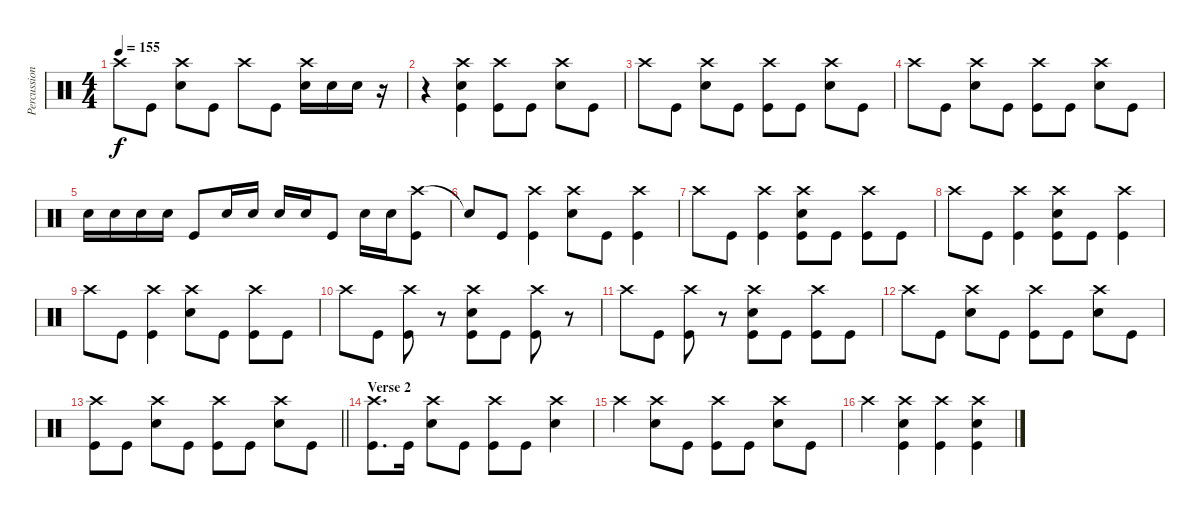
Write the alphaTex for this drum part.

\track ("Percussion" "Percussion") {instrument percussion}
\staff {score}
\articulation defaults
\ts (4 4)
\tempo 155
\clef neutral
\ks c "Crash high (hit)".8{dy f} "Kick (hit)".8
("Crash high (hit)" "Snare (hit) 2").8 "Kick (hit)".8 "Crash high (hit)".8 "Kick (hit)".8 ("Crash high (hit)" "Snare (hit) 2").16 "Snare (hit) 2".16 "Snare (hit) 2".16 r.16 |
r.4 ("Crash high (hit)" "Snare (hit) 2" "Kick (hit)").4 ("Crash high (hit)" "Kick (hit)").8 "Kick (hit)".8 ("Crash high (hit)" "Snare (hit) 2").8 "Kick (hit)".8 |
"Crash high (hit)".8 "Kick (hit)".8 ("Crash high (hit)" "Snare (hit) 2").8 "Kick (hit)".8 ("Crash high (hit)" "Kick (hit)").8 "Kick (hit)".8 ("Crash high (hit)" "Snare (hit) 2").8 "Kick (hit)".8 |
"Crash high (hit)".8 "Kick (hit)".8 ("Crash high (hit)" "Snare (hit) 2").8 "Kick (hit)".8 ("Crash high (hit)" "Kick (hit)").8 "Kick (hit)".8 ("Crash high (hit)" "Snare (hit) 2").8 "Kick (hit)".8 |
"Snare (hit) 2".16 "Snare (hit) 2".16 "Snare (hit) 2".16 "Snare (hit) 2".16 "Kick (hit)".8 "Snare (hit) 2".16 "Snare (hit) 2".16 "Snare (hit) 2".16 "Snare (hit) 2".16 "Kick (hit)".8 "Snare (hit) 2".16 "Snare (hit) 2".16 ("Crash high (hit)" "Kick (hit)").8 |
"Snare (hit)"{t}.8 "Kick (hit)".8 ("Crash high (hit)" "Kick (hit)").4 ("Crash high (hit)" "Snare (hit) 2").8 "Kick (hit)".8 ("Crash high (hit)" "Kick (hit)").4 |
"Crash high (hit)".8 "Kick (hit)".8 ("Crash high (hit)" "Kick (hit)").4 ("Crash high (hit)" "Snare (hit) 2" "Kick (hit)").8 "Kick (hit)".8 ("Crash high (hit)" "Kick (hit)").8 "Kick (hit)".8 |
"Crash high (hit)".8 "Kick (hit)".8 ("Crash high (hit)" "Kick (hit)").4 ("Crash high (hit)" "Snare (hit) 2" "Kick (hit)").8 "Kick (hit)".8 ("Crash high (hit)" "Kick (hit)").4 |
"Crash high (hit)".8 "Kick (hit)".8 ("Crash high (hit)" "Kick (hit)").4 ("Crash high (hit)" "Snare (hit) 2").8 "Kick (hit)".8 ("Crash high (hit)" "Kick (hit)").8 "Kick (hit)".8 |
"Crash high (hit)".8 "Kick (hit)".8 ("Crash high (hit)" "Kick (hit)").8 r.8 ("Crash high (hit)" "Snare (hit) 2" "Kick (hit)").8 "Kick (hit)".8 ("Crash high (hit)" "Kick (hit)").8 r.8 |
"Crash high (hit)".8 "Kick (hit)".8 ("Crash high (hit)" "Kick (hit)").8 r.8 ("Crash high (hit)" "Snare (hit) 2" "Kick (hit)").8 "Kick (hit)".8 ("Crash high (hit)" "Kick (hit)").8 "Kick (hit)".8 |
"Crash high (hit)".8 "Kick (hit)".8 ("Crash high (hit)" "Snare (hit) 2").8 "Kick (hit)".8 ("Crash high (hit)" "Kick (hit)").8 "Kick (hit)".8 ("Crash high (hit)" "Snare (hit) 2").8 "Kick (hit)".8 |
\barLineRight lightlight
("Crash high (hit)" "Kick (hit)").8 "Kick (hit)".8 ("Crash high (hit)" "Snare (hit) 2").8 "Kick (hit)".8 ("Crash high (hit)" "Kick (hit)").8 "Kick (hit)".8 ("Crash high (hit)" "Snare (hit) 2").8 "Kick (hit)".8 |
\section ("" "Verse 2")
("Crash high (hit)" "Kick (hit)").8{d} "Kick (hit)".16 ("Crash high (hit)" "Snare (hit) 2").8 "Kick (hit)".8 ("Crash high (hit)" "Kick (hit)").8 "Kick (hit)".8 ("Crash high (hit)" "Snare (hit) 2").4 |
"Crash high (hit)".4 ("Crash high (hit)" "Snare (hit) 2").8 "Kick (hit)".8 ("Crash high (hit)" "Kick (hit)").8 "Kick (hit)".8 ("Crash high (hit)" "Snare (hit) 2").8 "Kick (hit)".8 |
"Crash high (hit)".4 ("Crash high (hit)" "Snare (hit) 2" "Kick (hit)").4 ("Crash high (hit)" "Kick (hit)").4 ("Crash high (hit)" "Snare (hit) 2" "Kick (hit)").4
